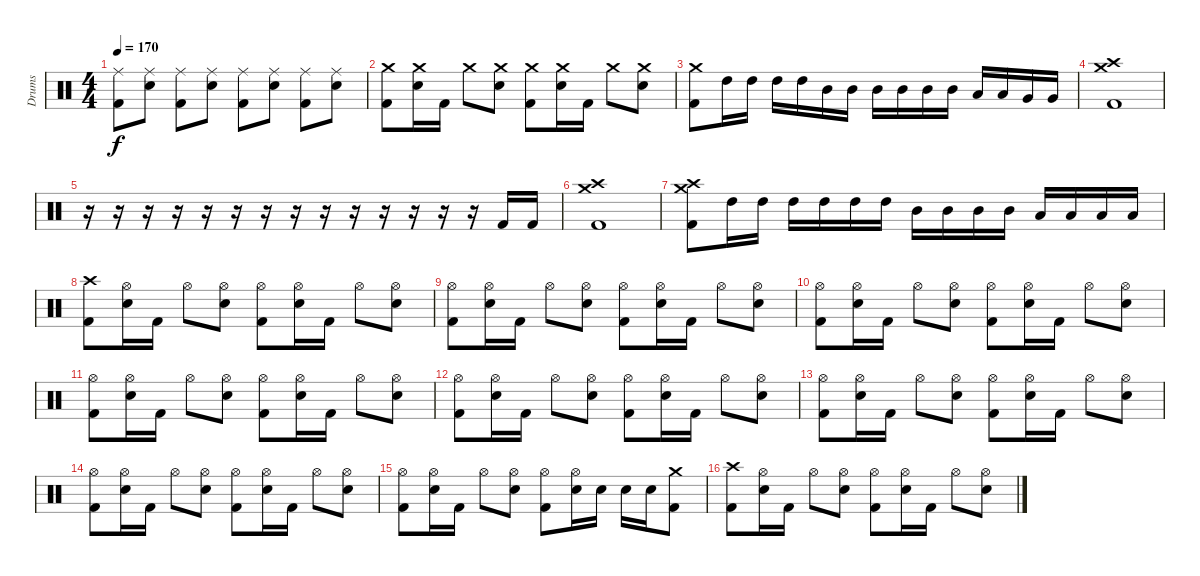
\track ("Drums" "Drums") {instrument percussion}
\staff {score}
\articulation defaults
\ts (4 4)
\tempo 170
\clef neutral
\ks c
("Ride (middle)" "Kick (hit) 2").8{dy f} ("Ride (middle)" "Electric Snare (hit)").8 ("Ride (middle)" "Kick (hit) 2").8 ("Ride (middle)" "Electric Snare (hit)").8 ("Ride (middle)" "Kick (hit) 2").8 ("Ride (middle)" "Electric Snare (hit)").8 ("Ride (middle)" "Kick (hit) 2").8 ("Ride (middle)" "Electric Snare (hit)").8 |
("Crash medium (hit)" "Kick (hit) 2").8 ("Crash medium (hit)" "Electric Snare (hit)").16 "Kick (hit) 2".16 "Crash medium (hit)".8 ("Crash medium (hit)" "Electric Snare (hit)").8 ("Crash medium (hit)" "Kick (hit) 2").8 ("Crash medium (hit)" "Electric Snare (hit)").16 "Kick (hit) 2".16 "Crash medium (hit)".8 ("Crash medium (hit)" "Electric Snare (hit)").8 |
("Crash medium (hit)" "Kick (hit) 2").8 "High Tom (hit)".16 "High Tom (hit)".16 "High Tom (hit)".16 "High Tom (hit)".16 "Mid Tom (hit)".16 "Mid Tom (hit)".16 "Mid Tom (hit)".16 "Mid Tom (hit)".16 "Mid Tom (hit)".16 "Mid Tom (hit)".16 "Low Tom (hit)".16 "Low Tom (hit)".16 "Very Low Tom (hit)".16 "Very Low Tom (hit)".16 |
("Crash high (hit)" "Crash medium (hit)" "Kick (hit) 2").1 |
r.16 r.16 r.16 r.16 r.16 r.16 r.16 r.16 r.16 r.16 r.16 r.16 r.16 r.16 "Kick (hit) 2".16 "Kick (hit) 2".16 |
("Crash high (hit)" "Crash medium (hit)" "Kick (hit) 2").1 |
("Crash high (hit)" "Crash medium (hit)" "Kick (hit) 2").8 "High Tom (hit)".16 "High Tom (hit)".16 "High Tom (hit)".16 "High Tom (hit)".16 "High Tom (hit)".16 "High Tom (hit)".16 "Mid Tom (hit)".16 "Mid Tom (hit)".16 "Mid Tom (hit)".16 "Mid Tom (hit)".16 "Low Tom (hit)".16 "Low Tom (hit)".16 "Low Tom (hit)".16 "Low Tom (hit)".16 |
("Crash high (hit)" "Kick (hit) 2").8 ("Hi-Hat (open)" "Electric Snare (hit)").16 "Kick (hit) 2".16 "Hi-Hat (open)".8 ("Hi-Hat (open)" "Electric Snare (hit)").8 ("Hi-Hat (open)" "Kick (hit) 2").8 ("Hi-Hat (open)" "Electric Snare (hit)").16 "Kick (hit) 2".16 "Hi-Hat (open)".8 ("Hi-Hat (open)" "Electric Snare (hit)").8 |
("Hi-Hat (open)" "Kick (hit) 2").8 ("Hi-Hat (open)" "Electric Snare (hit)").16 "Kick (hit) 2".16 "Hi-Hat (open)".8 ("Hi-Hat (open)" "Electric Snare (hit)").8 ("Hi-Hat (open)" "Kick (hit) 2").8 ("Hi-Hat (open)" "Electric Snare (hit)").16 "Kick (hit) 2".16 "Hi-Hat (open)".8 ("Hi-Hat (open)" "Electric Snare (hit)").8 |
("Hi-Hat (open)" "Kick (hit) 2").8 ("Hi-Hat (open)" "Electric Snare (hit)").16 "Kick (hit) 2".16 "Hi-Hat (open)".8 ("Hi-Hat (open)" "Electric Snare (hit)").8 ("Hi-Hat (open)" "Kick (hit) 2").8 ("Hi-Hat (open)" "Electric Snare (hit)").16 "Kick (hit) 2".16 "Hi-Hat (open)".8 ("Hi-Hat (open)" "Electric Snare (hit)").8 |
("Hi-Hat (open)" "Kick (hit) 2").8 ("Hi-Hat (open)" "Electric Snare (hit)").16 "Kick (hit) 2".16 "Hi-Hat (open)".8 ("Hi-Hat (open)" "Electric Snare (hit)").8 ("Hi-Hat (open)" "Kick (hit) 2").8 ("Hi-Hat (open)" "Electric Snare (hit)").16 "Kick (hit) 2".16 "Hi-Hat (open)".8 ("Hi-Hat (open)" "Electric Snare (hit)").8 |
("Hi-Hat (open)" "Kick (hit) 2").8 ("Hi-Hat (open)" "Electric Snare (hit)").16 "Kick (hit) 2".16 "Hi-Hat (open)".8 ("Hi-Hat (open)" "Electric Snare (hit)").8 ("Hi-Hat (open)" "Kick (hit) 2").8 ("Hi-Hat (open)" "Electric Snare (hit)").16 "Kick (hit) 2".16 "Hi-Hat (open)".8 ("Hi-Hat (open)" "Electric Snare (hit)").8 |
("Hi-Hat (open)" "Kick (hit) 2").8 ("Hi-Hat (open)" "Electric Snare (hit)").16 "Kick (hit) 2".16 "Hi-Hat (open)".8 ("Hi-Hat (open)" "Electric Snare (hit)").8 ("Hi-Hat (open)" "Kick (hit) 2").8 ("Hi-Hat (open)" "Electric Snare (hit)").16 "Kick (hit) 2".16 "Hi-Hat (open)".8 ("Hi-Hat (open)" "Electric Snare (hit)").8 |
("Hi-Hat (open)" "Kick (hit) 2").8 ("Hi-Hat (open)" "Electric Snare (hit)").16 "Kick (hit) 2".16 "Hi-Hat (open)".8 ("Hi-Hat (open)" "Electric Snare (hit)").8 ("Hi-Hat (open)" "Kick (hit) 2").8 ("Hi-Hat (open)" "Electric Snare (hit)").16 "Kick (hit) 2".16 "Hi-Hat (open)".8 ("Hi-Hat (open)" "Electric Snare (hit)").8 |
("Hi-Hat (open)" "Kick (hit) 2").8 ("Hi-Hat (open)" "Electric Snare (hit)").16 "Kick (hit) 2".16 "Hi-Hat (open)".8 ("Hi-Hat (open)" "Electric Snare (hit)").8 ("Hi-Hat (open)" "Kick (hit) 2").8 ("Hi-Hat (open)" "Electric Snare (hit)").16 "Electric Snare (hit)".16 "Electric Snare (hit)".16 "Electric Snare (hit)".16 ("Crash medium (hit)" "Kick (hit) 2").8 |
("Crash high (hit)" "Kick (hit) 2").8 ("Hi-Hat (open)" "Electric Snare (hit)").16 "Kick (hit) 2".16 "Hi-Hat (open)".8 ("Hi-Hat (open)" "Electric Snare (hit)").8 ("Hi-Hat (open)" "Kick (hit) 2").8 ("Hi-Hat (open)" "Electric Snare (hit)").16 "Kick (hit) 2".16 "Hi-Hat (open)".8 ("Hi-Hat (open)" "Electric Snare (hit)").8
